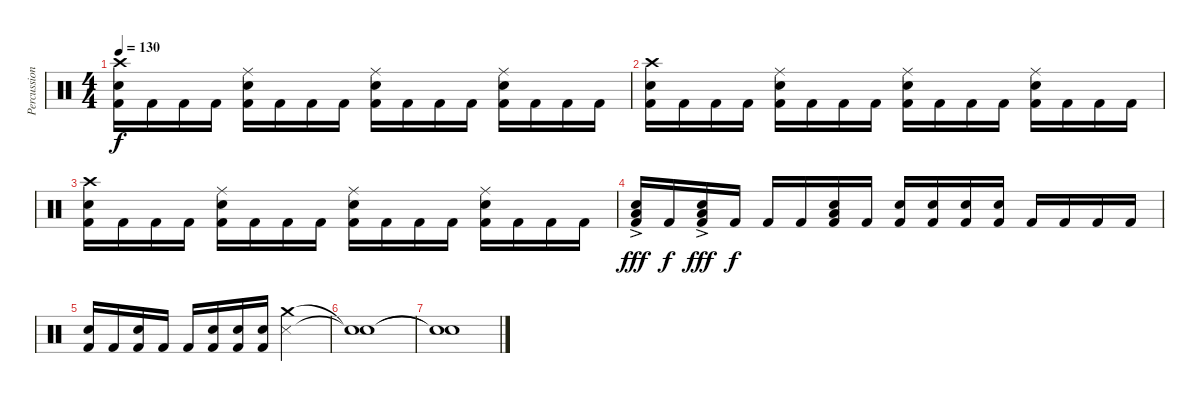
\track ("Percussion" "Percussion") {instrument percussion}
\staff {score}
\articulation defaults
\ts (4 4)
\tempo 130
\clef neutral
\ks c
("Crash high (hit)" "Snare (hit) 2" "Kick (hit) 2").16{dy f} "Kick (hit) 2".16 "Kick (hit) 2".16 "Kick (hit) 2".16 ("Ride (middle)" "Snare (hit) 2" "Kick (hit) 2").16 "Kick (hit) 2".16 "Kick (hit) 2".16 "Kick (hit) 2".16 ("Ride (middle)" "Snare (hit) 2" "Kick (hit) 2").16 "Kick (hit) 2".16 "Kick (hit) 2".16 "Kick (hit) 2".16 ("Ride (middle)" "Snare (hit) 2" "Kick (hit) 2").16 "Kick (hit) 2".16 "Kick (hit) 2".16 "Kick (hit) 2".16 |
("Crash high (hit)" "Snare (hit) 2" "Kick (hit) 2").16 "Kick (hit) 2".16 "Kick (hit) 2".16 "Kick (hit) 2".16 ("Ride (middle)" "Snare (hit) 2" "Kick (hit) 2").16 "Kick (hit) 2".16 "Kick (hit) 2".16 "Kick (hit) 2".16 ("Ride (middle)" "Snare (hit) 2" "Kick (hit) 2").16 "Kick (hit) 2".16 "Kick (hit) 2".16 "Kick (hit) 2".16 ("Ride (middle)" "Snare (hit) 2" "Kick (hit) 2").16 "Kick (hit) 2".16 "Kick (hit) 2".16 "Kick (hit) 2".16 |
("Crash high (hit)" "Snare (hit) 2" "Kick (hit) 2").16 "Kick (hit) 2".16 "Kick (hit) 2".16 "Kick (hit) 2".16 ("Ride (middle)" "Snare (hit) 2" "Kick (hit) 2").16 "Kick (hit) 2".16 "Kick (hit) 2".16 "Kick (hit) 2".16 ("Ride (middle)" "Snare (hit) 2" "Kick (hit) 2").16 "Kick (hit) 2".16 "Kick (hit) 2".16 "Kick (hit) 2".16 ("Ride (middle)" "Snare (hit) 2" "Kick (hit) 2").16 "Kick (hit) 2".16 "Kick (hit) 2".16 "Kick (hit) 2".16 |
("Low Floor Tom (hit)" "Snare (hit) 2"{ac} "Kick (hit) 2").16{dy fff} "Kick (hit) 2".16{dy f} ("Low Floor Tom (hit)" "Snare (hit) 2"{ac} "Kick (hit) 2").16{dy fff} "Kick (hit) 2".16{dy f} "Kick (hit) 2".16 "Kick (hit) 2".16 ("Low Floor Tom (hit)" "Snare (hit) 2" "Kick (hit) 2").16 "Kick (hit) 2".16 ("Snare (hit) 2" "Kick (hit) 2").16 ("Snare (hit) 2" "Kick (hit) 2").16 ("Snare (hit) 2" "Kick (hit) 2").16 ("Snare (hit) 2" "Kick (hit) 2").16 "Kick (hit) 2".16 "Kick (hit) 2".16 "Kick (hit) 2".16 "Kick (hit) 2".16 |
("Snare (hit) 2" "Kick (hit) 2").16 "Kick (hit) 2".16 ("Snare (hit) 2" "Kick (hit) 2").16 "Kick (hit) 2".16 "Kick (hit) 2".16 ("Snare (hit) 2" "Kick (hit) 2").16 ("Snare (hit) 2" "Kick (hit) 2").16 ("Snare (hit) 2" "Kick (hit) 2").16 ("Crash medium (hit)" "Snare (side stick) 3").2 |
("Snare (hit)"{t} "Snare (hit)"{t}).1 |
("Snare (hit)"{t} "Snare (hit)"{t}).1
